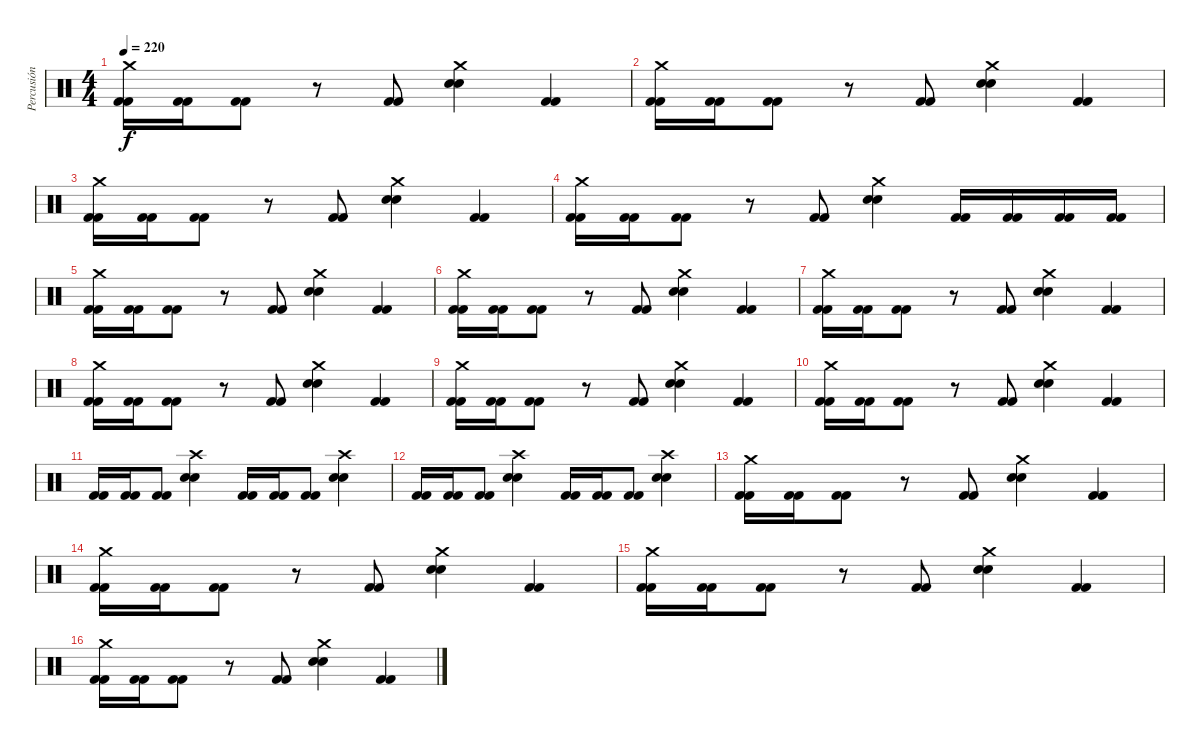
\track ("Percusión" "Percusión") {instrument percussion}
\staff {score}
\articulation defaults
\ts (4 4)
\tempo 220
\clef neutral
\ks c
("Kick (hit) 2" "Kick (hit) 2" "Crash medium (hit)").16{dy f} ("Kick (hit) 2" "Kick (hit) 2").16 ("Kick (hit) 2" "Kick (hit) 2").8 r.8 ("Kick (hit) 2" "Kick (hit) 2").8 ("Electric Snare (hit)" "Electric Snare (hit)" "Crash medium (hit)").4 ("Kick (hit) 2" "Kick (hit) 2").4 |
("Kick (hit) 2" "Kick (hit) 2" "Crash medium (hit)").16 ("Kick (hit) 2" "Kick (hit) 2").16 ("Kick (hit) 2" "Kick (hit) 2").8 r.8 ("Kick (hit) 2" "Kick (hit) 2").8 ("Electric Snare (hit)" "Electric Snare (hit)" "Crash medium (hit)").4 ("Kick (hit) 2" "Kick (hit) 2").4 |
("Kick (hit) 2" "Kick (hit) 2" "Crash medium (hit)").16 ("Kick (hit) 2" "Kick (hit) 2").16 ("Kick (hit) 2" "Kick (hit) 2").8 r.8 ("Kick (hit) 2" "Kick (hit) 2").8 ("Electric Snare (hit)" "Electric Snare (hit)" "Crash medium (hit)").4 ("Kick (hit) 2" "Kick (hit) 2").4 |
("Kick (hit) 2" "Kick (hit) 2" "Crash medium (hit)").16 ("Kick (hit) 2" "Kick (hit) 2").16 ("Kick (hit) 2" "Kick (hit) 2").8 r.8 ("Kick (hit) 2" "Kick (hit) 2").8 ("Electric Snare (hit)" "Electric Snare (hit)" "Crash medium (hit)").4 ("Kick (hit) 2" "Kick (hit) 2").16 ("Kick (hit) 2" "Kick (hit) 2").16 ("Kick (hit) 2" "Kick (hit) 2").16 ("Kick (hit) 2" "Kick (hit) 2").16 |
("Kick (hit) 2" "Kick (hit) 2" "Crash medium (hit)").16 ("Kick (hit) 2" "Kick (hit) 2").16 ("Kick (hit) 2" "Kick (hit) 2").8 r.8 ("Kick (hit) 2" "Kick (hit) 2").8 ("Electric Snare (hit)" "Electric Snare (hit)" "Crash medium (hit)").4 ("Kick (hit) 2" "Kick (hit) 2").4 |
("Kick (hit) 2" "Kick (hit) 2" "Crash medium (hit)").16 ("Kick (hit) 2" "Kick (hit) 2").16 ("Kick (hit) 2" "Kick (hit) 2").8 r.8 ("Kick (hit) 2" "Kick (hit) 2").8 ("Electric Snare (hit)" "Electric Snare (hit)" "Crash medium (hit)").4 ("Kick (hit) 2" "Kick (hit) 2").4 |
("Kick (hit) 2" "Kick (hit) 2" "Crash medium (hit)").16 ("Kick (hit) 2" "Kick (hit) 2").16 ("Kick (hit) 2" "Kick (hit) 2").8 r.8 ("Kick (hit) 2" "Kick (hit) 2").8 ("Electric Snare (hit)" "Electric Snare (hit)" "Crash medium (hit)").4 ("Kick (hit) 2" "Kick (hit) 2").4 |
("Kick (hit) 2" "Kick (hit) 2" "Crash medium (hit)").16 ("Kick (hit) 2" "Kick (hit) 2").16 ("Kick (hit) 2" "Kick (hit) 2").8 r.8 ("Kick (hit) 2" "Kick (hit) 2").8 ("Electric Snare (hit)" "Electric Snare (hit)" "Crash medium (hit)").4 ("Kick (hit) 2" "Kick (hit) 2").4 |
("Kick (hit) 2" "Kick (hit) 2" "Crash medium (hit)").16 ("Kick (hit) 2" "Kick (hit) 2").16 ("Kick (hit) 2" "Kick (hit) 2").8 r.8 ("Kick (hit) 2" "Kick (hit) 2").8 ("Electric Snare (hit)" "Electric Snare (hit)" "Crash medium (hit)").4 ("Kick (hit) 2" "Kick (hit) 2").4 |
("Kick (hit) 2" "Kick (hit) 2" "Crash medium (hit)").16 ("Kick (hit) 2" "Kick (hit) 2").16 ("Kick (hit) 2" "Kick (hit) 2").8 r.8 ("Kick (hit) 2" "Kick (hit) 2").8 ("Electric Snare (hit)" "Electric Snare (hit)" "Crash medium (hit)").4 ("Kick (hit) 2" "Kick (hit) 2").4 |
("Kick (hit) 2" "Kick (hit) 2").16 ("Kick (hit) 2" "Kick (hit) 2").16 ("Kick (hit) 2" "Kick (hit) 2").8 ("Electric Snare (hit)" "Electric Snare (hit)" "Crash high (hit)").4 ("Kick (hit) 2" "Kick (hit) 2").16 ("Kick (hit) 2" "Kick (hit) 2").16 ("Kick (hit) 2" "Kick (hit) 2").8 ("Electric Snare (hit)" "Electric Snare (hit)" "Crash high (hit)").4 |
("Kick (hit) 2" "Kick (hit) 2").16 ("Kick (hit) 2" "Kick (hit) 2").16 ("Kick (hit) 2" "Kick (hit) 2").8 ("Electric Snare (hit)" "Electric Snare (hit)" "Crash high (hit)").4 ("Kick (hit) 2" "Kick (hit) 2").16 ("Kick (hit) 2" "Kick (hit) 2").16 ("Kick (hit) 2" "Kick (hit) 2").8 ("Electric Snare (hit)" "Electric Snare (hit)" "Crash high (hit)").4 |
("Kick (hit) 2" "Kick (hit) 2" "Crash medium (hit)").16 ("Kick (hit) 2" "Kick (hit) 2").16 ("Kick (hit) 2" "Kick (hit) 2").8 r.8 ("Kick (hit) 2" "Kick (hit) 2").8 ("Electric Snare (hit)" "Electric Snare (hit)" "Crash medium (hit)").4 ("Kick (hit) 2" "Kick (hit) 2").4 |
("Kick (hit) 2" "Kick (hit) 2" "Crash medium (hit)").16 ("Kick (hit) 2" "Kick (hit) 2").16 ("Kick (hit) 2" "Kick (hit) 2").8 r.8 ("Kick (hit) 2" "Kick (hit) 2").8 ("Electric Snare (hit)" "Electric Snare (hit)" "Crash medium (hit)").4 ("Kick (hit) 2" "Kick (hit) 2").4 |
("Kick (hit) 2" "Kick (hit) 2" "Crash medium (hit)").16 ("Kick (hit) 2" "Kick (hit) 2").16 ("Kick (hit) 2" "Kick (hit) 2").8 r.8 ("Kick (hit) 2" "Kick (hit) 2").8 ("Electric Snare (hit)" "Electric Snare (hit)" "Crash medium (hit)").4 ("Kick (hit) 2" "Kick (hit) 2").4 |
("Kick (hit) 2" "Kick (hit) 2" "Crash medium (hit)").16 ("Kick (hit) 2" "Kick (hit) 2").16 ("Kick (hit) 2" "Kick (hit) 2").8 r.8 ("Kick (hit) 2" "Kick (hit) 2").8 ("Electric Snare (hit)" "Electric Snare (hit)" "Crash medium (hit)").4 ("Kick (hit) 2" "Kick (hit) 2").4
